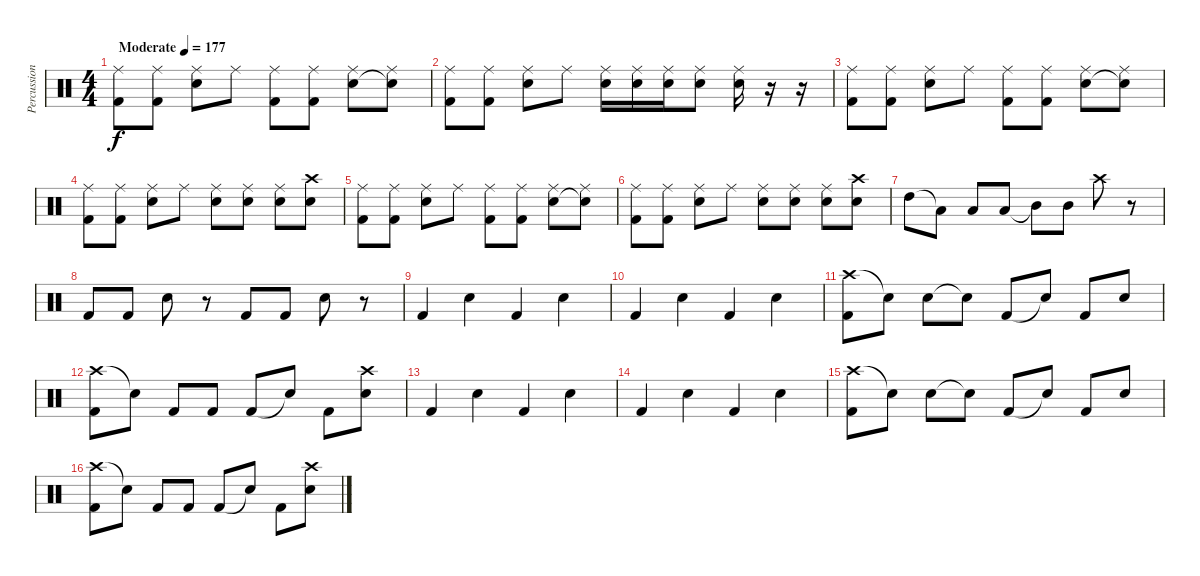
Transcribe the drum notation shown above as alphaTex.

\track ("Percussion" "Percussion") {instrument percussion}
\staff {score}
\articulation defaults
\ts (4 4)
\tempo (177 "Moderate")
\clef neutral
\ks c
("Ride (middle)" "Kick (hit) 2").8{dy f} ("Ride (middle)" "Kick (hit) 2").8 ("Ride (middle)" "Electric Snare (hit)").8 "Ride (middle)".8 ("Ride (middle)" "Kick (hit) 2").8 ("Ride (middle)" "Kick (hit) 2").8 ("Ride (middle)" "Electric Snare (hit)").8 ("Ride (middle)" "Snare (hit)"{t}).8 |
("Ride (middle)" "Kick (hit) 2").8 ("Ride (middle)" "Kick (hit) 2").8 ("Ride (middle)" "Electric Snare (hit)").8 "Ride (middle)".8 ("Ride (middle)" "Electric Snare (hit)").16 ("Ride (middle)" "Electric Snare (hit)").16 ("Ride (middle)" "Electric Snare (hit)").16 ("Ride (middle)" "Electric Snare (hit)").8 ("Ride (middle)" "Electric Snare (hit)").16 r.16 r.16 |
("Ride (middle)" "Kick (hit) 2").8 ("Ride (middle)" "Kick (hit) 2").8 ("Ride (middle)" "Electric Snare (hit)").8 "Ride (middle)".8 ("Ride (middle)" "Kick (hit) 2").8 ("Ride (middle)" "Kick (hit) 2").8 ("Ride (middle)" "Electric Snare (hit)").8 ("Ride (middle)" "Snare (hit)"{t}).8 |
("Ride (middle)" "Kick (hit) 2").8 ("Ride (middle)" "Kick (hit) 2").8 ("Ride (middle)" "Electric Snare (hit)").8 "Ride (middle)".8 ("Ride (middle)" "Electric Snare (hit)").8 ("Ride (middle)" "Electric Snare (hit)").8 ("Ride (middle)" "Electric Snare (hit)").8 ("Crash high (hit)" "Electric Snare (hit)").8 |
("Ride (middle)" "Kick (hit) 2").8 ("Ride (middle)" "Kick (hit) 2").8 ("Ride (middle)" "Electric Snare (hit)").8 "Ride (middle)".8 ("Ride (middle)" "Kick (hit) 2").8 ("Ride (middle)" "Kick (hit) 2").8 ("Ride (middle)" "Electric Snare (hit)").8 ("Ride (middle)" "Snare (hit)"{t}).8 |
("Ride (middle)" "Kick (hit) 2").8 ("Ride (middle)" "Kick (hit) 2").8 ("Ride (middle)" "Electric Snare (hit)").8 "Ride (middle)".8 ("Ride (middle)" "Electric Snare (hit)").8 ("Ride (middle)" "Electric Snare (hit)").8 ("Ride (middle)" "Electric Snare (hit)").8 ("Crash high (hit)" "Electric Snare (hit)").8 |
"High Tom (hit)".8 "Low Tom (hit)"{t}.8 "Low Tom (hit)".8 "Low Tom (hit)".8 "Mid Tom (hit)"{t}.8 "Mid Tom (hit)".8 "Crash high (hit)".8 r.8 |
"Kick (hit) 2".8 "Kick (hit) 2".8 "Electric Snare (hit)".8 r.8 "Kick (hit) 2".8 "Kick (hit) 2".8 "Electric Snare (hit)".8 r.8 |
"Kick (hit) 2".4 "Electric Snare (hit)".4 "Kick (hit) 2".4 "Electric Snare (hit)".4 |
"Kick (hit) 2".4 "Electric Snare (hit)".4 "Kick (hit) 2".4 "Electric Snare (hit)".4 |
("Crash high (hit)" "Kick (hit) 2").8 "Snare (hit)"{t}.8 "Electric Snare (hit)".8 "Snare (hit)"{t}.8 "Kick (hit) 2".8 "Snare (hit)"{t}.8 "Kick (hit) 2".8 "Electric Snare (hit)".8 |
("Crash high (hit)" "Kick (hit) 2").8 "Snare (hit)"{t}.8 "Kick (hit) 2".8 "Kick (hit) 2".8 "Kick (hit) 2".8 "Snare (hit)"{t}.8 "Kick (hit) 2".8 ("Crash high (hit)" "Electric Snare (hit)").8 |
"Kick (hit) 2".4 "Electric Snare (hit)".4 "Kick (hit) 2".4 "Electric Snare (hit)".4 |
"Kick (hit) 2".4 "Electric Snare (hit)".4 "Kick (hit) 2".4 "Electric Snare (hit)".4 |
("Crash high (hit)" "Kick (hit) 2").8 "Snare (hit)"{t}.8 "Electric Snare (hit)".8 "Snare (hit)"{t}.8 "Kick (hit) 2".8 "Snare (hit)"{t}.8 "Kick (hit) 2".8 "Electric Snare (hit)".8 |
("Crash high (hit)" "Kick (hit) 2").8 "Snare (hit)"{t}.8 "Kick (hit) 2".8 "Kick (hit) 2".8 "Kick (hit) 2".8 "Snare (hit)"{t}.8 "Kick (hit) 2".8 ("Crash high (hit)" "Electric Snare (hit)").8
